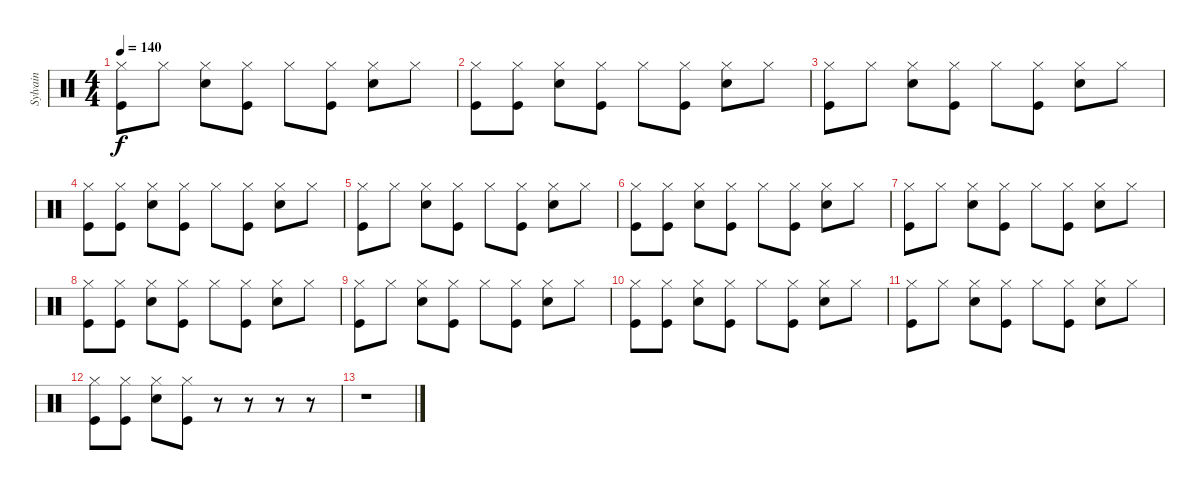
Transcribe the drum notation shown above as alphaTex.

\track ("Sylvain" "Sylvain") {instrument percussion}
\staff {score}
\articulation defaults
\ts (4 4)
\tempo 140
\clef neutral
\ks c
("Hi-Hat (closed)" "Kick (hit)").8{dy f} "Hi-Hat (closed)".8 ("Hi-Hat (closed)" "Electric Snare (hit)").8 ("Hi-Hat (closed)" "Kick (hit)").8 "Hi-Hat (closed)".8 ("Hi-Hat (closed)" "Kick (hit)").8 ("Hi-Hat (closed)" "Electric Snare (hit)").8 "Hi-Hat (closed)".8 |
("Hi-Hat (closed)" "Kick (hit)").8 ("Hi-Hat (closed)" "Kick (hit)").8 ("Hi-Hat (closed)" "Electric Snare (hit)").8 ("Hi-Hat (closed)" "Kick (hit)").8 "Hi-Hat (closed)".8 ("Hi-Hat (closed)" "Kick (hit)").8 ("Hi-Hat (closed)" "Electric Snare (hit)").8 "Hi-Hat (closed)".8 |
("Hi-Hat (closed)" "Kick (hit)").8 "Hi-Hat (closed)".8 ("Hi-Hat (closed)" "Electric Snare (hit)").8 ("Hi-Hat (closed)" "Kick (hit)").8 "Hi-Hat (closed)".8 ("Hi-Hat (closed)" "Kick (hit)").8 ("Hi-Hat (closed)" "Electric Snare (hit)").8 "Hi-Hat (closed)".8 |
("Hi-Hat (closed)" "Kick (hit)").8 ("Hi-Hat (closed)" "Kick (hit)").8 ("Hi-Hat (closed)" "Electric Snare (hit)").8 ("Hi-Hat (closed)" "Kick (hit)").8 "Hi-Hat (closed)".8 ("Hi-Hat (closed)" "Kick (hit)").8 ("Hi-Hat (closed)" "Electric Snare (hit)").8 "Hi-Hat (closed)".8 |
("Hi-Hat (closed)" "Kick (hit)").8 "Hi-Hat (closed)".8 ("Hi-Hat (closed)" "Electric Snare (hit)").8 ("Hi-Hat (closed)" "Kick (hit)").8 "Hi-Hat (closed)".8 ("Hi-Hat (closed)" "Kick (hit)").8 ("Hi-Hat (closed)" "Electric Snare (hit)").8 "Hi-Hat (closed)".8 |
("Hi-Hat (closed)" "Kick (hit)").8 ("Hi-Hat (closed)" "Kick (hit)").8 ("Hi-Hat (closed)" "Electric Snare (hit)").8 ("Hi-Hat (closed)" "Kick (hit)").8 "Hi-Hat (closed)".8 ("Hi-Hat (closed)" "Kick (hit)").8 ("Hi-Hat (closed)" "Electric Snare (hit)").8 "Hi-Hat (closed)".8 |
("Hi-Hat (closed)" "Kick (hit)").8 "Hi-Hat (closed)".8 ("Hi-Hat (closed)" "Electric Snare (hit)").8 ("Hi-Hat (closed)" "Kick (hit)").8 "Hi-Hat (closed)".8 ("Hi-Hat (closed)" "Kick (hit)").8 ("Hi-Hat (closed)" "Electric Snare (hit)").8 "Hi-Hat (closed)".8 |
("Hi-Hat (closed)" "Kick (hit)").8 ("Hi-Hat (closed)" "Kick (hit)").8 ("Hi-Hat (closed)" "Electric Snare (hit)").8 ("Hi-Hat (closed)" "Kick (hit)").8 "Hi-Hat (closed)".8 ("Hi-Hat (closed)" "Kick (hit)").8 ("Hi-Hat (closed)" "Electric Snare (hit)").8 "Hi-Hat (closed)".8 |
("Hi-Hat (closed)" "Kick (hit)").8 "Hi-Hat (closed)".8 ("Hi-Hat (closed)" "Electric Snare (hit)").8 ("Hi-Hat (closed)" "Kick (hit)").8 "Hi-Hat (closed)".8 ("Hi-Hat (closed)" "Kick (hit)").8 ("Hi-Hat (closed)" "Electric Snare (hit)").8 "Hi-Hat (closed)".8 |
("Hi-Hat (closed)" "Kick (hit)").8 ("Hi-Hat (closed)" "Kick (hit)").8 ("Hi-Hat (closed)" "Electric Snare (hit)").8 ("Hi-Hat (closed)" "Kick (hit)").8 "Hi-Hat (closed)".8 ("Hi-Hat (closed)" "Kick (hit)").8 ("Hi-Hat (closed)" "Electric Snare (hit)").8 "Hi-Hat (closed)".8 |
("Hi-Hat (closed)" "Kick (hit)").8 "Hi-Hat (closed)".8 ("Hi-Hat (closed)" "Electric Snare (hit)").8 ("Hi-Hat (closed)" "Kick (hit)").8 "Hi-Hat (closed)".8 ("Hi-Hat (closed)" "Kick (hit)").8 ("Hi-Hat (closed)" "Electric Snare (hit)").8 "Hi-Hat (closed)".8 |
("Hi-Hat (closed)" "Kick (hit)").8 ("Hi-Hat (closed)" "Kick (hit)").8 ("Hi-Hat (closed)" "Electric Snare (hit)").8 ("Hi-Hat (closed)" "Kick (hit)").8 r.8 r.8 r.8 r.8 |
r.1
